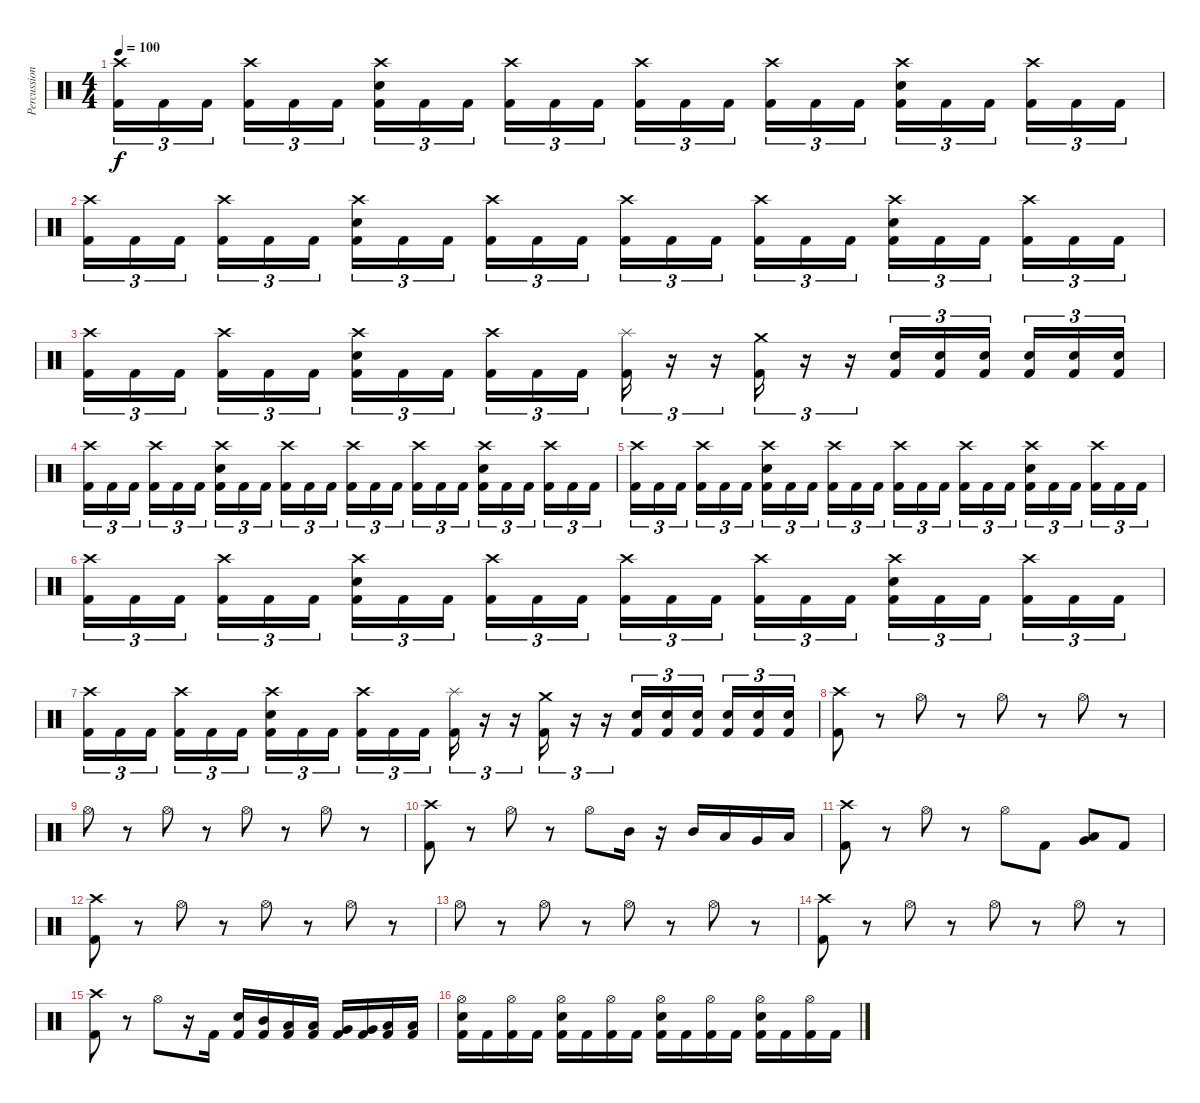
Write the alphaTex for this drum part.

\track ("Percussion" "Percussion") {instrument percussion}
\staff {score}
\articulation defaults
\ts (4 4)
\tempo 100
\clef neutral
\ks c
("Crash high (hit)" "Kick (hit) 2").16{tu (3 2) dy f} "Kick (hit) 2".16{tu (3 2)} "Kick (hit) 2".16{tu (3 2) beam splitsecondary} ("Crash high (hit)" "Kick (hit) 2").16{tu (3 2)} "Kick (hit) 2".16{tu (3 2)} "Kick (hit) 2".16{tu (3 2)} ("Crash high (hit)" "Electric Snare (hit)" "Kick (hit) 2").16{tu (3 2)} "Kick (hit) 2".16{tu (3 2)} "Kick (hit) 2".16{tu (3 2) beam splitsecondary} ("Crash high (hit)" "Kick (hit) 2").16{tu (3 2)} "Kick (hit) 2".16{tu (3 2)} "Kick (hit) 2".16{tu (3 2)} ("Crash high (hit)" "Kick (hit) 2").16{tu (3 2)} "Kick (hit) 2".16{tu (3 2)} "Kick (hit) 2".16{tu (3 2) beam splitsecondary} ("Crash high (hit)" "Kick (hit) 2").16{tu (3 2)} "Kick (hit) 2".16{tu (3 2)} "Kick (hit) 2".16{tu (3 2)} ("Crash high (hit)" "Electric Snare (hit)" "Kick (hit) 2").16{tu (3 2)} "Kick (hit) 2".16{tu (3 2)} "Kick (hit) 2".16{tu (3 2) beam splitsecondary} ("Crash high (hit)" "Kick (hit) 2").16{tu (3 2)} "Kick (hit) 2".16{tu (3 2)} "Kick (hit) 2".16{tu (3 2)} |
("Crash high (hit)" "Kick (hit) 2").16{tu (3 2)} "Kick (hit) 2".16{tu (3 2)} "Kick (hit) 2".16{tu (3 2) beam splitsecondary} ("Crash high (hit)" "Kick (hit) 2").16{tu (3 2)} "Kick (hit) 2".16{tu (3 2)} "Kick (hit) 2".16{tu (3 2)} ("Crash high (hit)" "Electric Snare (hit)" "Kick (hit) 2").16{tu (3 2)} "Kick (hit) 2".16{tu (3 2)} "Kick (hit) 2".16{tu (3 2) beam splitsecondary} ("Crash high (hit)" "Kick (hit) 2").16{tu (3 2)} "Kick (hit) 2".16{tu (3 2)} "Kick (hit) 2".16{tu (3 2)} ("Crash high (hit)" "Kick (hit) 2").16{tu (3 2)} "Kick (hit) 2".16{tu (3 2)} "Kick (hit) 2".16{tu (3 2) beam splitsecondary} ("Crash high (hit)" "Kick (hit) 2").16{tu (3 2)} "Kick (hit) 2".16{tu (3 2)} "Kick (hit) 2".16{tu (3 2)} ("Crash high (hit)" "Electric Snare (hit)" "Kick (hit) 2").16{tu (3 2)} "Kick (hit) 2".16{tu (3 2)} "Kick (hit) 2".16{tu (3 2) beam splitsecondary} ("Crash high (hit)" "Kick (hit) 2").16{tu (3 2)} "Kick (hit) 2".16{tu (3 2)} "Kick (hit) 2".16{tu (3 2)} |
("Crash high (hit)" "Kick (hit) 2").16{tu (3 2)} "Kick (hit) 2".16{tu (3 2)} "Kick (hit) 2".16{tu (3 2) beam splitsecondary} ("Crash high (hit)" "Kick (hit) 2").16{tu (3 2)} "Kick (hit) 2".16{tu (3 2)} "Kick (hit) 2".16{tu (3 2)} ("Crash high (hit)" "Electric Snare (hit)" "Kick (hit) 2").16{tu (3 2)} "Kick (hit) 2".16{tu (3 2)} "Kick (hit) 2".16{tu (3 2) beam splitsecondary} ("Crash high (hit)" "Kick (hit) 2").16{tu (3 2)} "Kick (hit) 2".16{tu (3 2)} "Kick (hit) 2".16{tu (3 2)} ("Splash (hit)" "Kick (hit) 2").16{tu (3 2)} r.16{tu (3 2)} r.16{tu (3 2)} ("Crash medium (hit)" "Kick (hit) 2").16{tu (3 2)} r.16{tu (3 2)} r.16{tu (3 2)} ("Electric Snare (hit)" "Kick (hit) 2").16{tu (3 2)} ("Electric Snare (hit)" "Kick (hit) 2").16{tu (3 2)} ("Electric Snare (hit)" "Kick (hit) 2").16{tu (3 2) beam splitsecondary} ("Electric Snare (hit)" "Kick (hit) 2").16{tu (3 2)} ("Electric Snare (hit)" "Kick (hit) 2").16{tu (3 2)} ("Electric Snare (hit)" "Kick (hit) 2").16{tu (3 2)} |
("Crash high (hit)" "Kick (hit) 2").16{tu (3 2)} "Kick (hit) 2".16{tu (3 2)} "Kick (hit) 2".16{tu (3 2) beam splitsecondary} ("Crash high (hit)" "Kick (hit) 2").16{tu (3 2)} "Kick (hit) 2".16{tu (3 2)} "Kick (hit) 2".16{tu (3 2)} ("Crash high (hit)" "Electric Snare (hit)" "Kick (hit) 2").16{tu (3 2)} "Kick (hit) 2".16{tu (3 2)} "Kick (hit) 2".16{tu (3 2) beam splitsecondary} ("Crash high (hit)" "Kick (hit) 2").16{tu (3 2)} "Kick (hit) 2".16{tu (3 2)} "Kick (hit) 2".16{tu (3 2)} ("Crash high (hit)" "Kick (hit) 2").16{tu (3 2)} "Kick (hit) 2".16{tu (3 2)} "Kick (hit) 2".16{tu (3 2) beam splitsecondary} ("Crash high (hit)" "Kick (hit) 2").16{tu (3 2)} "Kick (hit) 2".16{tu (3 2)} "Kick (hit) 2".16{tu (3 2)} ("Crash high (hit)" "Electric Snare (hit)" "Kick (hit) 2").16{tu (3 2)} "Kick (hit) 2".16{tu (3 2)} "Kick (hit) 2".16{tu (3 2) beam splitsecondary} ("Crash high (hit)" "Kick (hit) 2").16{tu (3 2)} "Kick (hit) 2".16{tu (3 2)} "Kick (hit) 2".16{tu (3 2)} |
("Crash high (hit)" "Kick (hit) 2").16{tu (3 2)} "Kick (hit) 2".16{tu (3 2)} "Kick (hit) 2".16{tu (3 2) beam splitsecondary} ("Crash high (hit)" "Kick (hit) 2").16{tu (3 2)} "Kick (hit) 2".16{tu (3 2)} "Kick (hit) 2".16{tu (3 2)} ("Crash high (hit)" "Electric Snare (hit)" "Kick (hit) 2").16{tu (3 2)} "Kick (hit) 2".16{tu (3 2)} "Kick (hit) 2".16{tu (3 2) beam splitsecondary} ("Crash high (hit)" "Kick (hit) 2").16{tu (3 2)} "Kick (hit) 2".16{tu (3 2)} "Kick (hit) 2".16{tu (3 2)} ("Crash high (hit)" "Kick (hit) 2").16{tu (3 2)} "Kick (hit) 2".16{tu (3 2)} "Kick (hit) 2".16{tu (3 2) beam splitsecondary} ("Crash high (hit)" "Kick (hit) 2").16{tu (3 2)} "Kick (hit) 2".16{tu (3 2)} "Kick (hit) 2".16{tu (3 2)} ("Crash high (hit)" "Electric Snare (hit)" "Kick (hit) 2").16{tu (3 2)} "Kick (hit) 2".16{tu (3 2)} "Kick (hit) 2".16{tu (3 2) beam splitsecondary} ("Crash high (hit)" "Kick (hit) 2").16{tu (3 2)} "Kick (hit) 2".16{tu (3 2)} "Kick (hit) 2".16{tu (3 2)} |
("Crash high (hit)" "Kick (hit) 2").16{tu (3 2)} "Kick (hit) 2".16{tu (3 2)} "Kick (hit) 2".16{tu (3 2) beam splitsecondary} ("Crash high (hit)" "Kick (hit) 2").16{tu (3 2)} "Kick (hit) 2".16{tu (3 2)} "Kick (hit) 2".16{tu (3 2)} ("Crash high (hit)" "Electric Snare (hit)" "Kick (hit) 2").16{tu (3 2)} "Kick (hit) 2".16{tu (3 2)} "Kick (hit) 2".16{tu (3 2) beam splitsecondary} ("Crash high (hit)" "Kick (hit) 2").16{tu (3 2)} "Kick (hit) 2".16{tu (3 2)} "Kick (hit) 2".16{tu (3 2)} ("Crash high (hit)" "Kick (hit) 2").16{tu (3 2)} "Kick (hit) 2".16{tu (3 2)} "Kick (hit) 2".16{tu (3 2) beam splitsecondary} ("Crash high (hit)" "Kick (hit) 2").16{tu (3 2)} "Kick (hit) 2".16{tu (3 2)} "Kick (hit) 2".16{tu (3 2)} ("Crash high (hit)" "Electric Snare (hit)" "Kick (hit) 2").16{tu (3 2)} "Kick (hit) 2".16{tu (3 2)} "Kick (hit) 2".16{tu (3 2) beam splitsecondary} ("Crash high (hit)" "Kick (hit) 2").16{tu (3 2)} "Kick (hit) 2".16{tu (3 2)} "Kick (hit) 2".16{tu (3 2)} |
("Crash high (hit)" "Kick (hit) 2").16{tu (3 2)} "Kick (hit) 2".16{tu (3 2)} "Kick (hit) 2".16{tu (3 2) beam splitsecondary} ("Crash high (hit)" "Kick (hit) 2").16{tu (3 2)} "Kick (hit) 2".16{tu (3 2)} "Kick (hit) 2".16{tu (3 2)} ("Crash high (hit)" "Electric Snare (hit)" "Kick (hit) 2").16{tu (3 2)} "Kick (hit) 2".16{tu (3 2)} "Kick (hit) 2".16{tu (3 2) beam splitsecondary} ("Crash high (hit)" "Kick (hit) 2").16{tu (3 2)} "Kick (hit) 2".16{tu (3 2)} "Kick (hit) 2".16{tu (3 2)} ("Splash (hit)" "Kick (hit) 2").16{tu (3 2)} r.16{tu (3 2)} r.16{tu (3 2)} ("Crash medium (hit)" "Kick (hit) 2").16{tu (3 2)} r.16{tu (3 2)} r.16{tu (3 2)} ("Electric Snare (hit)" "Kick (hit) 2").16{tu (3 2)} ("Electric Snare (hit)" "Kick (hit) 2").16{tu (3 2)} ("Electric Snare (hit)" "Kick (hit) 2").16{tu (3 2) beam splitsecondary} ("Electric Snare (hit)" "Kick (hit) 2").16{tu (3 2)} ("Electric Snare (hit)" "Kick (hit) 2").16{tu (3 2)} ("Electric Snare (hit)" "Kick (hit) 2").16{tu (3 2)} |
("Crash high (hit)" "Kick (hit) 2").8 r.8 "Hi-Hat (open)".8 r.8 "Hi-Hat (open)".8 r.8 "Hi-Hat (open)".8 r.8 |
"Hi-Hat (open)".8 r.8 "Hi-Hat (open)".8 r.8 "Hi-Hat (open)".8 r.8 "Hi-Hat (open)".8 r.8 |
("Crash high (hit)" "Kick (hit) 2").8 r.8 "Hi-Hat (open)".8 r.8 "Hi-Hat (open)".8 "Mid Tom (hit)".16 r.16 "Mid Tom (hit)".16 "Low Tom (hit)".16 "Very Low Tom (hit)".16 "Low Floor Tom (hit)".16 |
("Crash high (hit)" "Kick (hit) 2").8 r.8 "Hi-Hat (open)".8 r.8 "Hi-Hat (open)".8 "Kick (hit) 2".8 ("Low Floor Tom (hit)" "Very Low Tom (hit)").8 "Kick (hit) 2".8 |
("Crash high (hit)" "Kick (hit) 2").8 r.8 "Hi-Hat (open)".8 r.8 "Hi-Hat (open)".8 r.8 "Hi-Hat (open)".8 r.8 |
"Hi-Hat (open)".8 r.8 "Hi-Hat (open)".8 r.8 "Hi-Hat (open)".8 r.8 "Hi-Hat (open)".8 r.8 |
("Crash high (hit)" "Kick (hit) 2").8 r.8 "Hi-Hat (open)".8 r.8 "Hi-Hat (open)".8 r.8 "Hi-Hat (open)".8 r.8 |
("Crash high (hit)" "Kick (hit) 2").8 r.8 "Hi-Hat (open)".8 r.16 "Kick (hit) 2".16 ("Electric Snare (hit)" "Kick (hit) 2").16 ("Mid Tom (hit)" "Kick (hit) 2").16 ("Low Tom (hit)" "Kick (hit) 2").16 ("Low Tom (hit)" "Kick (hit) 2").16 ("Very Low Tom (hit)" "Kick (hit) 2").16 ("Very Low Tom (hit)" "Kick (hit) 2").16 ("Low Floor Tom (hit)" "Kick (hit) 2").16 ("Low Floor Tom (hit)" "Kick (hit) 2").16 |
("Hi-Hat (open)" "Electric Snare (hit)" "Kick (hit) 2").16 "Kick (hit) 2".16 ("Hi-Hat (open)" "Kick (hit) 2").16 "Kick (hit) 2".16 ("Hi-Hat (open)" "Electric Snare (hit)" "Kick (hit) 2").16 "Kick (hit) 2".16 ("Hi-Hat (open)" "Kick (hit) 2").16 "Kick (hit) 2".16 ("Hi-Hat (open)" "Electric Snare (hit)" "Kick (hit) 2").16 "Kick (hit) 2".16 ("Hi-Hat (open)" "Kick (hit) 2").16 "Kick (hit) 2".16 ("Hi-Hat (open)" "Electric Snare (hit)" "Kick (hit) 2").16 "Kick (hit) 2".16 ("Hi-Hat (open)" "Kick (hit) 2").16 "Kick (hit) 2".16
